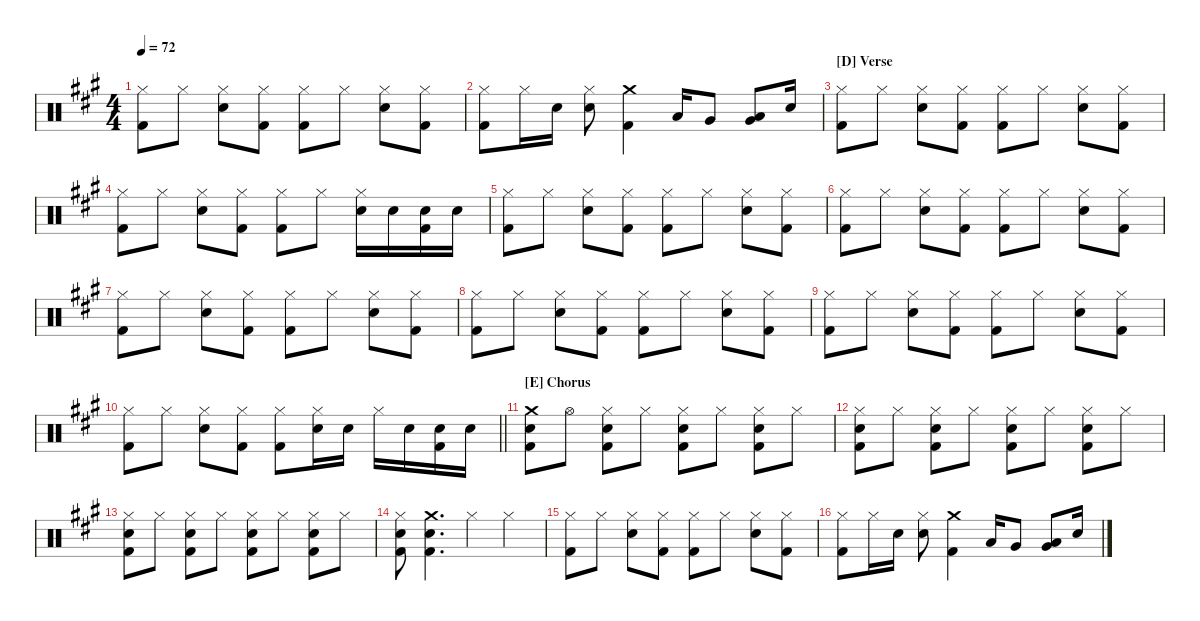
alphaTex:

\hideDynamics
\bracketExtendMode nobrackets
\singleTrackTrackNamePolicy hidden
\multiTrackTrackNamePolicy hidden
\otherSystemsTrackNameOrientation horizontal
\track ("Drumkit" "Drums") {instrument percussion}
\staff {score}
\articulation defaults
\ts (4 4)
\beaming (8 2 2 2 2)
\tempo 72
\clef neutral
\scale
0.333333
\ks a
("Hi-Hat (closed)"{acc forcenatural} "Kick (hit) 2"{acc forcenatural}).8{dy mf beam Down} "Hi-Hat (closed)"{acc forcenatural}.8{beam Down} ("Hi-Hat (closed)"{acc forcenatural} "Snare (hit) 2"{acc forcenatural}).8{beam Down} ("Hi-Hat (closed)"{acc forcenatural} "Kick (hit) 2"{acc forcenatural}).8{beam Down} ("Hi-Hat (closed)"{acc forcenatural} "Kick (hit) 2"{acc forcenatural}).8{beam Down} "Hi-Hat (closed)"{acc forcenatural}.8{beam Down} ("Hi-Hat (closed)"{acc forcenatural} "Snare (hit) 2"{acc forcenatural}).8{beam Down} ("Hi-Hat (closed)"{acc forcenatural} "Kick (hit) 2"{acc forcenatural}).8{beam Down} |
\scale
0.333333 ("Hi-Hat (closed)"{acc forcenatural} "Kick (hit) 2"{acc forcenatural}).8{beam Down} "Hi-Hat (closed)"{acc forcenatural}.16{beam Down} "Snare (hit) 2"{acc forcenatural}.16{beam Down} ("Hi-Hat (closed)"{acc forcenatural} "Snare (hit) 2"{acc forcenatural}).8{beam Down} ("Crash medium (hit)"{acc forcenatural} "Kick (hit) 2"{acc forcenatural}).4{beam Down} "Low Tom (hit)"{acc forcenatural}.16{beam Up} "Very Low Tom (hit)"{acc forcenatural}.8{beam Up} ("Low Tom (hit)"{acc forcenatural} "Very Low Tom (hit)"{acc forcenatural}).8{beam Up} "Snare (hit) 2"{acc forcenatural}.16{beam Up} |
\section ("D" "Verse")
("Hi-Hat (closed)"{acc forcenatural} "Kick (hit) 2"{acc forcenatural}).8{beam Down} "Hi-Hat (closed)"{acc forcenatural}.8{beam Down} ("Hi-Hat (closed)"{acc forcenatural} "Snare (hit) 2"{acc forcenatural}).8{beam Down} ("Hi-Hat (closed)"{acc forcenatural} "Kick (hit) 2"{acc forcenatural}).8{beam Down} ("Hi-Hat (closed)"{acc forcenatural} "Kick (hit) 2"{acc forcenatural}).8{beam Down} "Hi-Hat (closed)"{acc forcenatural}.8{beam Down} ("Hi-Hat (closed)"{acc forcenatural} "Snare (hit) 2"{acc forcenatural}).8{beam Down} ("Hi-Hat (closed)"{acc forcenatural} "Kick (hit) 2"{acc forcenatural}).8{beam Down} |
("Kick (hit) 2"{acc forcenatural} "Hi-Hat (closed)"{acc forcenatural}).8{beam Down} "Hi-Hat (closed)"{acc forcenatural}.8{beam Down} ("Snare (hit) 2"{acc forcenatural} "Hi-Hat (closed)"{acc forcenatural}).8{beam Down} ("Kick (hit) 2"{acc forcenatural} "Hi-Hat (closed)"{acc forcenatural}).8{beam Down} ("Kick (hit) 2"{acc forcenatural} "Hi-Hat (closed)"{acc forcenatural}).8{beam Down} "Hi-Hat (closed)"{acc forcenatural}.8{beam Down} ("Snare (hit) 2"{acc forcenatural} "Hi-Hat (closed)"{acc forcenatural}).16{beam Down} "Snare (hit) 2"{acc forcenatural}.16{beam Down} ("Snare (hit) 2"{acc forcenatural} "Kick (hit) 2"{acc forcenatural}).16{beam Down} "Snare (hit) 2"{acc forcenatural}.16{beam Down} |
("Hi-Hat (closed)"{acc forcenatural} "Kick (hit) 2"{acc forcenatural}).8{beam Down} "Hi-Hat (closed)"{acc forcenatural}.8{beam Down} ("Hi-Hat (closed)"{acc forcenatural} "Snare (hit) 2"{acc forcenatural}).8{beam Down} ("Hi-Hat (closed)"{acc forcenatural} "Kick (hit) 2"{acc forcenatural}).8{beam Down} ("Hi-Hat (closed)"{acc forcenatural} "Kick (hit) 2"{acc forcenatural}).8{beam Down} "Hi-Hat (closed)"{acc forcenatural}.8{beam Down} ("Hi-Hat (closed)"{acc forcenatural} "Snare (hit) 2"{acc forcenatural}).8{beam Down} ("Hi-Hat (closed)"{acc forcenatural} "Kick (hit) 2"{acc forcenatural}).8{beam Down} |
("Hi-Hat (closed)"{acc forcenatural} "Kick (hit) 2"{acc forcenatural}).8{beam Down} "Hi-Hat (closed)"{acc forcenatural}.8{beam Down} ("Hi-Hat (closed)"{acc forcenatural} "Snare (hit) 2"{acc forcenatural}).8{beam Down} ("Hi-Hat (closed)"{acc forcenatural} "Kick (hit) 2"{acc forcenatural}).8{beam Down} ("Hi-Hat (closed)"{acc forcenatural} "Kick (hit) 2"{acc forcenatural}).8{beam Down} "Hi-Hat (closed)"{acc forcenatural}.8{beam Down} ("Hi-Hat (closed)"{acc forcenatural} "Snare (hit) 2"{acc forcenatural}).8{beam Down} ("Hi-Hat (closed)"{acc forcenatural} "Kick (hit) 2"{acc forcenatural}).8{beam Down} |
("Hi-Hat (closed)"{acc forcenatural} "Kick (hit) 2"{acc forcenatural}).8{beam Down} "Hi-Hat (closed)"{acc forcenatural}.8{beam Down} ("Hi-Hat (closed)"{acc forcenatural} "Snare (hit) 2"{acc forcenatural}).8{beam Down} ("Hi-Hat (closed)"{acc forcenatural} "Kick (hit) 2"{acc forcenatural}).8{beam Down} ("Hi-Hat (closed)"{acc forcenatural} "Kick (hit) 2"{acc forcenatural}).8{beam Down} "Hi-Hat (closed)"{acc forcenatural}.8{beam Down} ("Hi-Hat (closed)"{acc forcenatural} "Snare (hit) 2"{acc forcenatural}).8{beam Down} ("Hi-Hat (closed)"{acc forcenatural} "Kick (hit) 2"{acc forcenatural}).8{beam Down} |
("Hi-Hat (closed)"{acc forcenatural} "Kick (hit) 2"{acc forcenatural}).8{beam Down} "Hi-Hat (closed)"{acc forcenatural}.8{beam Down} ("Hi-Hat (closed)"{acc forcenatural} "Snare (hit) 2"{acc forcenatural}).8{beam Down} ("Hi-Hat (closed)"{acc forcenatural} "Kick (hit) 2"{acc forcenatural}).8{beam Down} ("Hi-Hat (closed)"{acc forcenatural} "Kick (hit) 2"{acc forcenatural}).8{beam Down} "Hi-Hat (closed)"{acc forcenatural}.8{beam Down} ("Hi-Hat (closed)"{acc forcenatural} "Snare (hit) 2"{acc forcenatural}).8{beam Down} ("Hi-Hat (closed)"{acc forcenatural} "Kick (hit) 2"{acc forcenatural}).8{beam Down} |
("Hi-Hat (closed)"{acc forcenatural} "Kick (hit) 2"{acc forcenatural}).8{beam Down} "Hi-Hat (closed)"{acc forcenatural}.8{beam Down} ("Hi-Hat (closed)"{acc forcenatural} "Snare (hit) 2"{acc forcenatural}).8{beam Down} ("Hi-Hat (closed)"{acc forcenatural} "Kick (hit) 2"{acc forcenatural}).8{beam Down} ("Hi-Hat (closed)"{acc forcenatural} "Kick (hit) 2"{acc forcenatural}).8{beam Down} "Hi-Hat (closed)"{acc forcenatural}.8{beam Down} ("Hi-Hat (closed)"{acc forcenatural} "Snare (hit) 2"{acc forcenatural}).8{beam Down} ("Hi-Hat (closed)"{acc forcenatural} "Kick (hit) 2"{acc forcenatural}).8{beam Down} |
\barLineRight lightlight
("Kick (hit) 2"{acc forcenatural} "Hi-Hat (closed)"{acc forcenatural}).8{beam Down} "Hi-Hat (closed)"{acc forcenatural}.8{beam Down} ("Snare (hit) 2"{acc forcenatural} "Hi-Hat (closed)"{acc forcenatural}).8{beam Down} ("Kick (hit) 2"{acc forcenatural} "Hi-Hat (closed)"{acc forcenatural}).8{beam Down} ("Kick (hit) 2"{acc forcenatural} "Hi-Hat (closed)"{acc forcenatural}).8{beam Down} ("Snare (hit) 2"{acc forcenatural} "Hi-Hat (closed)"{acc forcenatural}).16{beam Down} "Snare (hit) 2"{acc forcenatural}.16{beam Down} "Hi-Hat (closed)"{acc forcenatural}.16{beam Down} "Snare (hit) 2"{acc forcenatural}.16{beam Down} ("Snare (hit) 2"{acc forcenatural} "Kick (hit) 2"{acc forcenatural}).16{beam Down} "Snare (hit) 2"{acc forcenatural}.16{beam Down} |
\section ("E" "Chorus")
("Snare (hit) 2"{acc forcenatural} "Crash medium (hit)"{acc forcenatural} "Kick (hit) 2"{acc forcenatural}).8{beam Down} "Hi-Hat (open)"{acc forcenatural}.8{beam Down} ("Kick (hit) 2"{acc forcenatural} "Hi-Hat (closed)"{acc forcenatural} "Snare (hit) 2"{acc forcenatural}).8{beam Down} "Hi-Hat (closed)"{acc forcenatural}.8{beam Down} ("Kick (hit) 2"{acc forcenatural} "Snare (hit) 2"{acc forcenatural} "Hi-Hat (closed)"{acc forcenatural}).8{beam Down} "Hi-Hat (closed)"{acc forcenatural}.8{beam Down} ("Kick (hit) 2"{acc forcenatural} "Snare (hit) 2"{acc forcenatural} "Hi-Hat (closed)"{acc forcenatural}).8{beam Down} "Hi-Hat (closed)"{acc forcenatural}.8{beam Down} |
("Hi-Hat (closed)"{acc forcenatural} "Snare (hit) 2"{acc forcenatural} "Kick (hit) 2"{acc forcenatural}).8{beam Down} "Hi-Hat (closed)"{acc forcenatural}.8{beam Down} ("Kick (hit) 2"{acc forcenatural} "Hi-Hat (closed)"{acc forcenatural} "Snare (hit) 2"{acc forcenatural}).8{beam Down} "Hi-Hat (closed)"{acc forcenatural}.8{beam Down} ("Kick (hit) 2"{acc forcenatural} "Snare (hit) 2"{acc forcenatural} "Hi-Hat (closed)"{acc forcenatural}).8{beam Down} "Hi-Hat (closed)"{acc forcenatural}.8{beam Down} ("Kick (hit) 2"{acc forcenatural} "Snare (hit) 2"{acc forcenatural} "Hi-Hat (closed)"{acc forcenatural}).8{beam Down} "Hi-Hat (closed)"{acc forcenatural}.8{beam Down} |
("Hi-Hat (closed)"{acc forcenatural} "Snare (hit) 2"{acc forcenatural} "Kick (hit) 2"{acc forcenatural}).8{beam Down} "Hi-Hat (closed)"{acc forcenatural}.8{beam Down} ("Kick (hit) 2"{acc forcenatural} "Hi-Hat (closed)"{acc forcenatural} "Snare (hit) 2"{acc forcenatural}).8{beam Down} "Hi-Hat (closed)"{acc forcenatural}.8{beam Down} ("Kick (hit) 2"{acc forcenatural} "Snare (hit) 2"{acc forcenatural} "Hi-Hat (closed)"{acc forcenatural}).8{beam Down} "Hi-Hat (closed)"{acc forcenatural}.8{beam Down} ("Kick (hit) 2"{acc forcenatural} "Snare (hit) 2"{acc forcenatural} "Hi-Hat (closed)"{acc forcenatural}).8{beam Down} "Hi-Hat (closed)"{acc forcenatural}.8{beam Down} |
("Hi-Hat (closed)"{acc forcenatural} "Snare (hit) 2"{acc forcenatural} "Kick (hit) 2"{acc forcenatural}).8{beam Down} ("Snare (hit) 2"{acc forcenatural} "Kick (hit) 2"{acc forcenatural} "Crash medium (hit)"{acc forcenatural}).4{d beam Down} "Hi-Hat (closed)"{acc forcenatural}.4{beam Down} "Hi-Hat (closed)"{acc forcenatural}.4{beam Down} |
("Hi-Hat (closed)"{acc forcenatural} "Kick (hit) 2"{acc forcenatural}).8{beam Down} "Hi-Hat (closed)"{acc forcenatural}.8{beam Down} ("Hi-Hat (closed)"{acc forcenatural} "Snare (hit) 2"{acc forcenatural}).8{beam Down} ("Hi-Hat (closed)"{acc forcenatural} "Kick (hit) 2"{acc forcenatural}).8{beam Down} ("Hi-Hat (closed)"{acc forcenatural} "Kick (hit) 2"{acc forcenatural}).8{beam Down} "Hi-Hat (closed)"{acc forcenatural}.8{beam Down} ("Hi-Hat (closed)"{acc forcenatural} "Snare (hit) 2"{acc forcenatural}).8{beam Down} ("Hi-Hat (closed)"{acc forcenatural} "Kick (hit) 2"{acc forcenatural}).8{beam Down} |
("Hi-Hat (closed)"{acc forcenatural} "Kick (hit) 2"{acc forcenatural}).8{beam Down} "Hi-Hat (closed)"{acc forcenatural}.16{beam Down} "Snare (hit) 2"{acc forcenatural}.16{beam Down} ("Hi-Hat (closed)"{acc forcenatural} "Snare (hit) 2"{acc forcenatural}).8{beam Down} ("Crash medium (hit)"{acc forcenatural} "Kick (hit) 2"{acc forcenatural}).4{beam Down} "Low Tom (hit)"{acc forcenatural}.16{beam Up} "Very Low Tom (hit)"{acc forcenatural}.8{beam Up} ("Low Tom (hit)"{acc forcenatural} "Very Low Tom (hit)"{acc forcenatural}).8{beam Up} "Snare (hit) 2"{acc forcenatural}.16{beam Up}
